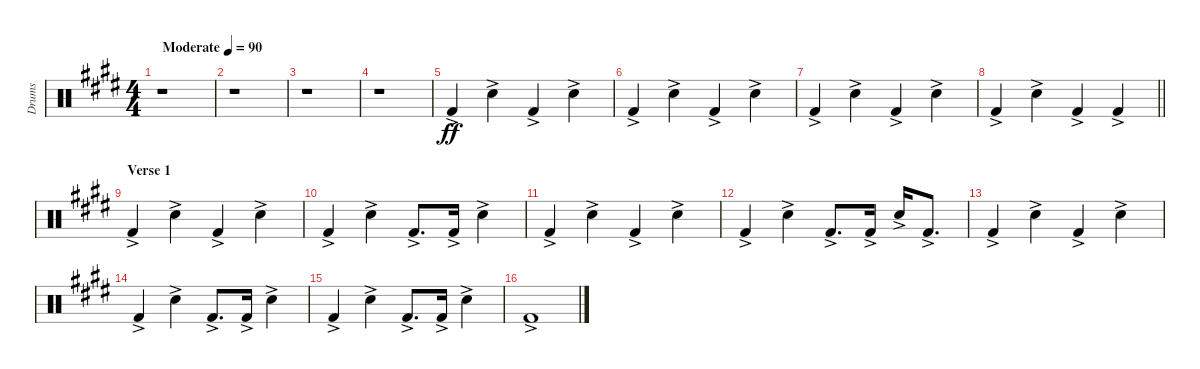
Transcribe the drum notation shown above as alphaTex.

\track ("Drums" "Drums") {instrument percussion}
\staff {score}
\articulation defaults
\ts (4 4)
\tempo (90 "Moderate")
\clef neutral
\ks e
r.1{dy ff} |
r.1 |
r.1 |
r.1 |
"Kick (hit) 2"{ac}.4 "Electric Snare (hit)"{ac}.4 "Kick (hit) 2"{ac}.4 "Electric Snare (hit)"{ac}.4 |
"Kick (hit) 2"{ac}.4 "Electric Snare (hit)"{ac}.4 "Kick (hit) 2"{ac}.4 "Electric Snare (hit)"{ac}.4 |
"Kick (hit) 2"{ac}.4 "Electric Snare (hit)"{ac}.4 "Kick (hit) 2"{ac}.4 "Electric Snare (hit)"{ac}.4 |
\barLineRight lightlight "Kick (hit) 2"{ac}.4 "Electric Snare (hit)"{ac}.4 "Kick (hit) 2"{ac}.4 "Kick (hit) 2"{ac}.4
|
\section ("" "Verse 1")
"Kick (hit) 2"{ac}.4 "Electric Snare (hit)"{ac}.4 "Kick (hit) 2"{ac}.4 "Electric Snare (hit)"{ac}.4 |
"Kick (hit) 2"{ac}.4 "Electric Snare (hit)"{ac}.4 "Kick (hit) 2"{ac}.8{d} "Kick (hit) 2"{ac}.16 "Electric Snare (hit)"{ac}.4 |
"Kick (hit) 2"{ac}.4 "Electric Snare (hit)"{ac}.4 "Kick (hit) 2"{ac}.4 "Electric Snare (hit)"{ac}.4 |
"Kick (hit) 2"{ac}.4 "Electric Snare (hit)"{ac}.4 "Kick (hit) 2"{ac}.8{d} "Kick (hit) 2"{ac}.16 "Electric Snare (hit)"{ac}.16 "Kick (hit) 2"{ac}.8{d} |
"Kick (hit) 2"{ac}.4 "Electric Snare (hit)"{ac}.4 "Kick (hit) 2"{ac}.4 "Electric Snare (hit)"{ac}.4 |
"Kick (hit) 2"{ac}.4 "Electric Snare (hit)"{ac}.4 "Kick (hit) 2"{ac}.8{d} "Kick (hit) 2"{ac}.16 "Electric Snare (hit)"{ac}.4 |
"Kick (hit) 2"{ac}.4 "Electric Snare (hit)"{ac}.4 "Kick (hit) 2"{ac}.8{d} "Kick (hit) 2"{ac}.16 "Electric Snare (hit)"{ac}.4 |
"Kick (hit) 2"{ac}.1
